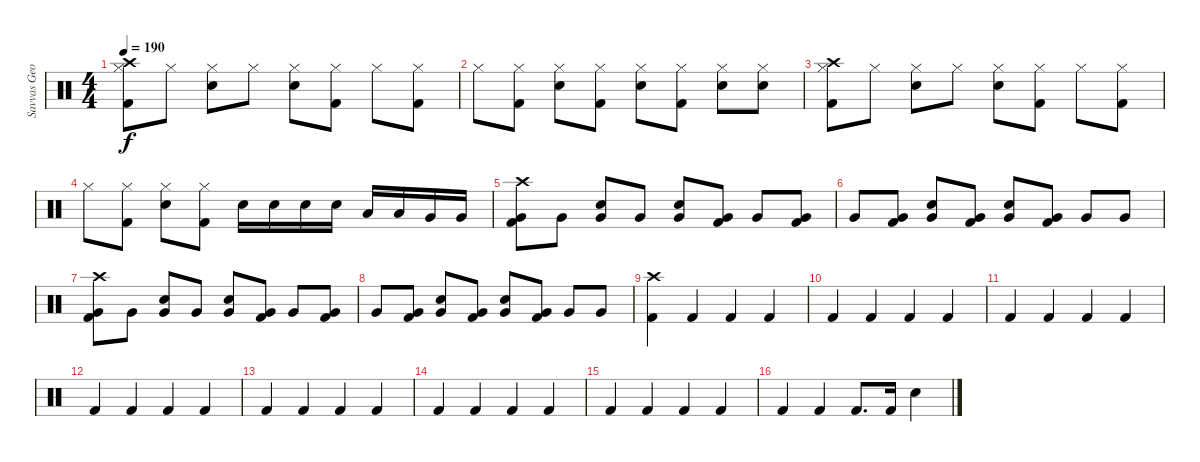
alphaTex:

\track ("Savvas Georgiadis" "Savvas Geo") {instrument percussion}
\staff {score}
\articulation defaults
\ts (4 4)
\tempo 190
\clef neutral
\ks c
("Crash high (hit)" "Hi-Hat (closed)" "Kick (hit) 2").8{dy f} "Hi-Hat (closed)".8 ("Hi-Hat (closed)" "Electric Snare (hit)").8 "Hi-Hat (closed)".8 ("Hi-Hat (closed)" "Electric Snare (hit)").8 ("Hi-Hat (closed)" "Kick (hit) 2").8 "Hi-Hat (closed)".8 ("Hi-Hat (closed)" "Kick (hit) 2").8 |
"Hi-Hat (closed)".8 ("Hi-Hat (closed)" "Kick (hit) 2").8 ("Hi-Hat (closed)" "Electric Snare (hit)").8 ("Hi-Hat (closed)" "Kick (hit) 2").8 ("Hi-Hat (closed)" "Electric Snare (hit)").8 ("Hi-Hat (closed)" "Kick (hit) 2").8 ("Hi-Hat (closed)" "Electric Snare (hit)").8 ("Hi-Hat (closed)" "Electric Snare (hit)").8 |
("Crash high (hit)" "Hi-Hat (closed)" "Kick (hit) 2").8 "Hi-Hat (closed)".8 ("Hi-Hat (closed)" "Electric Snare (hit)").8 "Hi-Hat (closed)".8 ("Hi-Hat (closed)" "Electric Snare (hit)").8 ("Hi-Hat (closed)" "Kick (hit) 2").8 "Hi-Hat (closed)".8 ("Hi-Hat (closed)" "Kick (hit) 2").8 |
"Hi-Hat (closed)".8 ("Hi-Hat (closed)" "Kick (hit) 2").8 ("Hi-Hat (closed)" "Electric Snare (hit)").8 ("Hi-Hat (closed)" "Kick (hit) 2").8 "Electric Snare (hit)".16 "Electric Snare (hit)".16 "Electric Snare (hit)".16 "Electric Snare (hit)".16 "Low Tom (hit)".16 "Low Tom (hit)".16 "Very Low Tom (hit)".16 "Very Low Tom (hit)".16 |
("Crash high (hit)" "Kick (hit) 2" "Very Low Tom (hit)").8 "Very Low Tom (hit)".8 ("Electric Snare (hit)" "Very Low Tom (hit)").8 "Very Low Tom (hit)".8 ("Electric Snare (hit)" "Very Low Tom (hit)").8 ("Kick (hit) 2" "Very Low Tom (hit)").8 "Very Low Tom (hit)".8 ("Kick (hit) 2" "Very Low Tom (hit)").8 |
"Very Low Tom (hit)".8 ("Kick (hit) 2" "Very Low Tom (hit)").8 ("Electric Snare (hit)" "Very Low Tom (hit)").8 ("Kick (hit) 2" "Very Low Tom (hit)").8 ("Electric Snare (hit)" "Very Low Tom (hit)").8 ("Kick (hit) 2" "Very Low Tom (hit)").8 "Very Low Tom (hit)".8 "Very Low Tom (hit)".8 |
("Crash high (hit)" "Kick (hit) 2" "Very Low Tom (hit)").8 "Very Low Tom (hit)".8 ("Electric Snare (hit)" "Very Low Tom (hit)").8 "Very Low Tom (hit)".8 ("Electric Snare (hit)" "Very Low Tom (hit)").8 ("Kick (hit) 2" "Very Low Tom (hit)").8 "Very Low Tom (hit)".8 ("Kick (hit) 2" "Very Low Tom (hit)").8 |
"Very Low Tom (hit)".8 ("Kick (hit) 2" "Very Low Tom (hit)").8 ("Electric Snare (hit)" "Very Low Tom (hit)").8 ("Kick (hit) 2" "Very Low Tom (hit)").8 ("Electric Snare (hit)" "Very Low Tom (hit)").8 ("Kick (hit) 2" "Very Low Tom (hit)").8 "Very Low Tom (hit)".8 "Very Low Tom (hit)".8 |
("Crash high (hit)" "Kick (hit) 2").4 "Kick (hit) 2".4 "Kick (hit) 2".4 "Kick (hit) 2".4 |
"Kick (hit) 2".4 "Kick (hit) 2".4 "Kick (hit) 2".4 "Kick (hit) 2".4 |
"Kick (hit) 2".4 "Kick (hit) 2".4 "Kick (hit) 2".4 "Kick (hit) 2".4 |
"Kick (hit) 2".4 "Kick (hit) 2".4 "Kick (hit) 2".4 "Kick (hit) 2".4 |
"Kick (hit) 2".4 "Kick (hit) 2".4 "Kick (hit) 2".4 "Kick (hit) 2".4 |
"Kick (hit) 2".4 "Kick (hit) 2".4 "Kick (hit) 2".4 "Kick (hit) 2".4 |
"Kick (hit) 2".4 "Kick (hit) 2".4 "Kick (hit) 2".4 "Kick (hit) 2".4 |
"Kick (hit) 2".4 "Kick (hit) 2".4 "Kick (hit) 2".8{d} "Kick (hit) 2".16 "Electric Snare (hit)".4
